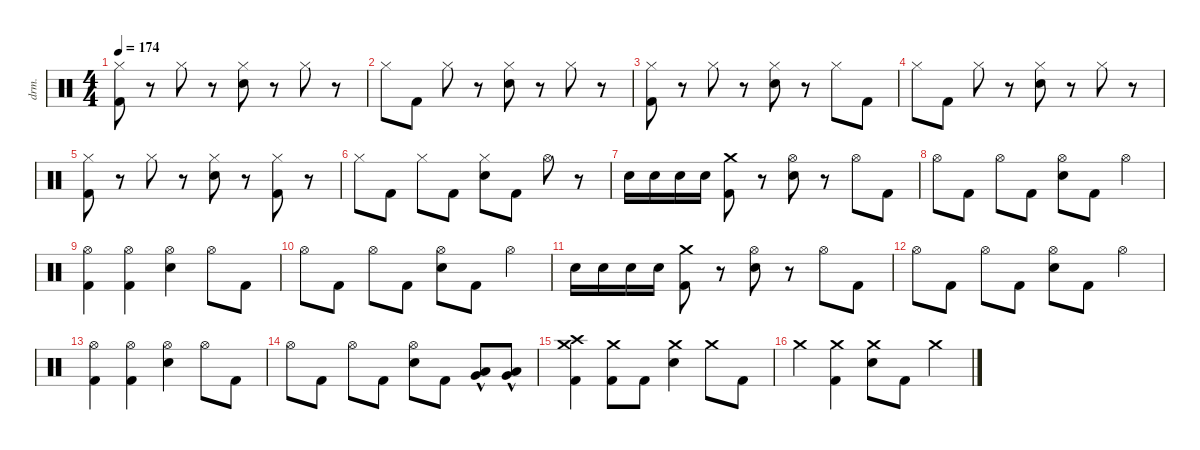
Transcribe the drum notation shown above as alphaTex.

\defaultSystemsLayout 4
\hideDynamics
\bracketExtendMode nobrackets
\track ("Ударные" "drm.") {instrument percussion}
\staff {score}
\articulation defaults
\ts (4 4)
\tempo 174
\clef neutral
\ks c
("Hi-Hat (closed)" "Kick (hit) 2").8{dy f} r.8 "Hi-Hat (closed)".8 r.8 ("Hi-Hat (closed)" "Snare (hit) 2").8 r.8 "Hi-Hat (closed)".8 r.8 |
"Hi-Hat (closed)".8 "Kick (hit) 2".8 "Hi-Hat (closed)".8 r.8 ("Hi-Hat (closed)" "Snare (hit) 2").8 r.8 "Hi-Hat (closed)".8 r.8 |
("Hi-Hat (closed)" "Kick (hit) 2").8 r.8 "Hi-Hat (closed)".8 r.8 ("Hi-Hat (closed)" "Snare (hit) 2").8 r.8 "Hi-Hat (closed)".8 "Kick (hit) 2".8 |
"Hi-Hat (closed)".8 "Kick (hit) 2".8 "Hi-Hat (closed)".8 r.8 ("Hi-Hat (closed)" "Snare (hit) 2").8 r.8 "Hi-Hat (closed)".8 r.8 |
("Hi-Hat (closed)" "Kick (hit) 2").8 r.8 "Hi-Hat (closed)".8 r.8 ("Hi-Hat (closed)" "Snare (hit) 2").8 r.8 ("Hi-Hat (closed)" "Kick (hit) 2").8 r.8 |
"Hi-Hat (closed)".8 "Kick (hit) 2".8 "Hi-Hat (closed)".8 "Kick (hit) 2".8 ("Hi-Hat (closed)" "Snare (hit) 2").8 "Kick (hit) 2".8 "Hi-Hat (open)".8 r.8 |
"Snare (hit) 2".16 "Snare (hit) 2".16 "Snare (hit) 2".16 "Snare (hit) 2".16 ("Crash medium (hit)" "Kick (hit) 2").8 r.8 ("Hi-Hat (open)" "Snare (hit) 2").8 r.8 "Hi-Hat (open)".8 "Kick (hit) 2".8 |
"Hi-Hat (open)".8 "Kick (hit) 2".8 "Hi-Hat (open)".8 "Kick (hit) 2".8 ("Hi-Hat (open)" "Snare (hit) 2").8 "Kick (hit) 2".8 "Hi-Hat (open)".4 |
("Hi-Hat (open)" "Kick (hit) 2").4 ("Hi-Hat (open)" "Kick (hit) 2").4 ("Hi-Hat (open)" "Snare (hit) 2").4 "Hi-Hat (open)".8 "Kick (hit) 2".8 |
"Hi-Hat (open)".8 "Kick (hit) 2".8 "Hi-Hat (open)".8 "Kick (hit) 2".8 ("Hi-Hat (open)" "Snare (hit) 2").8 "Kick (hit) 2".8 "Hi-Hat (open)".4 |
"Snare (hit) 2".16 "Snare (hit) 2".16 "Snare (hit) 2".16 "Snare (hit) 2".16 ("Crash medium (hit)" "Kick (hit) 2").8 r.8 ("Hi-Hat (open)" "Snare (hit) 2").8 r.8 "Hi-Hat (open)".8 "Kick (hit) 2".8 |
"Hi-Hat (open)".8 "Kick (hit) 2".8 "Hi-Hat (open)".8 "Kick (hit) 2".8 ("Hi-Hat (open)" "Snare (hit) 2").8 "Kick (hit) 2".8 "Hi-Hat (open)".4 |
("Hi-Hat (open)" "Kick (hit) 2").4 ("Hi-Hat (open)" "Kick (hit) 2").4 ("Hi-Hat (open)" "Snare (hit) 2").4 "Hi-Hat (open)".8 "Kick (hit) 2".8 |
"Hi-Hat (open)".8 "Kick (hit) 2".8 "Hi-Hat (open)".8 "Kick (hit) 2".8 ("Hi-Hat (open)" "Snare (hit) 2").8 "Kick (hit) 2".8 ("Low Floor Tom (hit)"{hac} "Very Low Tom (hit)"{hac}).8 ("Low Floor Tom (hit)"{hac} "Very Low Tom (hit)"{hac}).8 |
("Crash high (hit)" "Crash medium (hit)" "Kick (hit) 2").4 ("Crash medium (hit)" "Kick (hit) 2").8 "Kick (hit) 2".8 ("Crash medium (hit)" "Snare (hit) 2").4 "Crash medium (hit)".8 "Kick (hit) 2".8 |
"Crash medium (hit)".4 ("Crash medium (hit)" "Kick (hit) 2").4 ("Crash medium (hit)" "Snare (hit) 2").8 "Kick (hit) 2".8 "Crash medium (hit)".4
